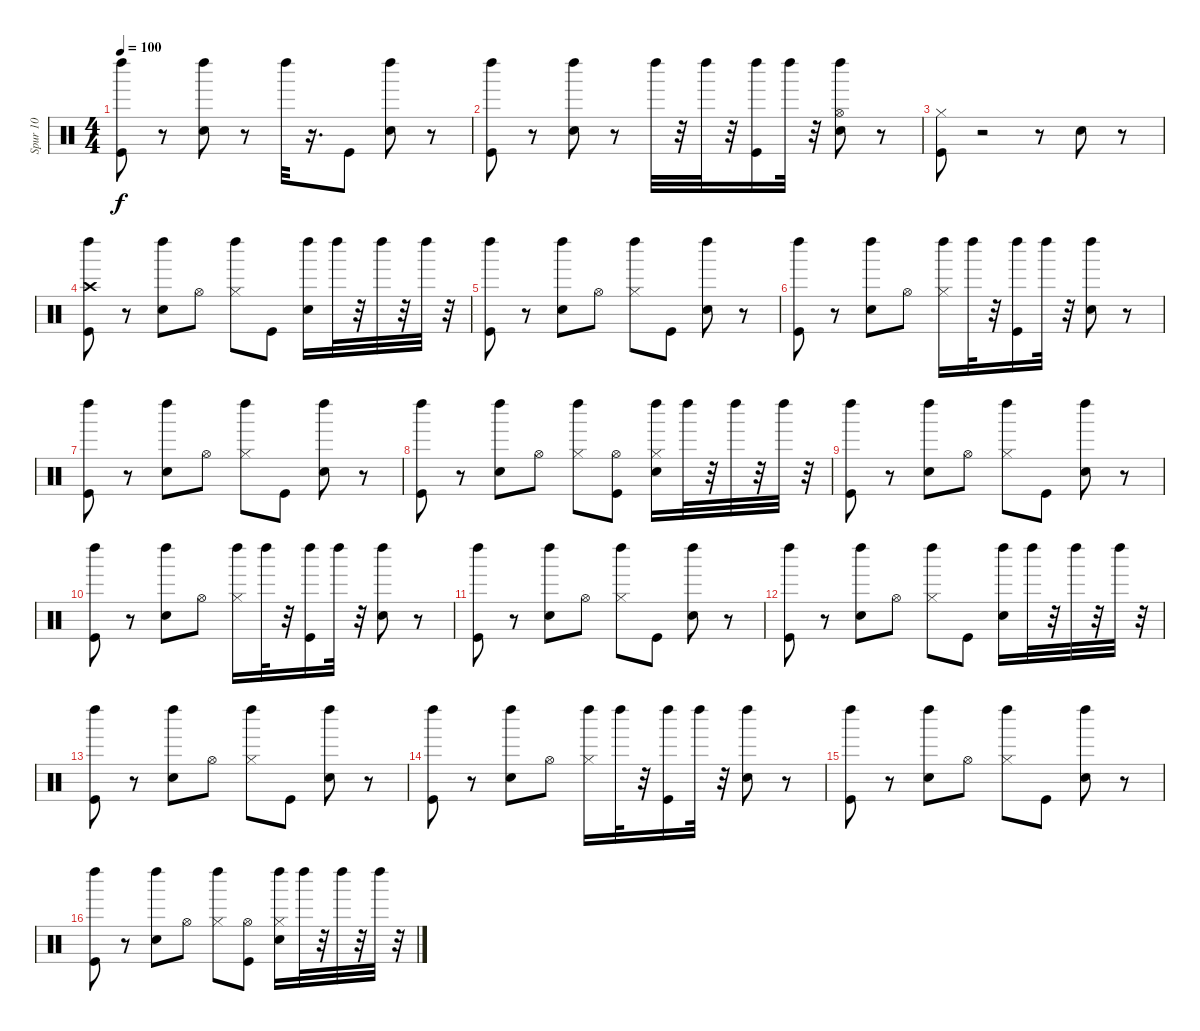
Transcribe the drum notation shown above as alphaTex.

\track ("Spur 10" "Spur 10") {instrument percussion}
\staff {score}
\articulation defaults
\ts (4 4)
\tempo 100
\clef neutral
\ks c
("Kick (hit)" "Left Maraca (hit)").8{dy f} r.8 ("Snare (hit) 2" "Left Maraca (hit)").8 r.8 "Left Maraca (hit)".32 r.16{d} "Kick (hit)".8 ("Snare (hit) 2" "Left Maraca (hit)").8 r.8 |
("Kick (hit)" "Left Maraca (hit)").8 r.8 ("Snare (hit) 2" "Left Maraca (hit)").8 r.8 "Left Maraca (hit)".32 r.32 "Left Maraca (hit)".32 r.32 ("Kick (hit)" "Left Maraca (hit)").16 "Left Maraca (hit)".32 r.32 ("Hi-Hat (open)" "Snare (hit) 2" "Left Maraca (hit)").8 r.8 |
("Hi-Hat (closed)" "Kick (hit)").8 r.2 r.8 "Snare (hit) 2".8 r.8 |
("Kick (hit)" "Crash high (hit)" "Left Maraca (hit)").8 r.8 ("Snare (hit) 2" "Left Maraca (hit)").8 "Hi-Hat (open)".8 ("Hi-Hat (closed)" "Left Maraca (hit)").8 "Kick (hit)".8 ("Snare (hit) 2" "Left Maraca (hit)").16 "Left Maraca (hit)".32 r.32 "Left Maraca (hit)".32 r.32 "Left Maraca (hit)".32 r.32 |
("Kick (hit)" "Left Maraca (hit)").8 r.8 ("Snare (hit) 2" "Left Maraca (hit)").8 "Hi-Hat (open)".8 ("Hi-Hat (closed)" "Left Maraca (hit)").8 "Kick (hit)".8 ("Snare (hit) 2" "Left Maraca (hit)").8 r.8 |
("Kick (hit)" "Left Maraca (hit)").8 r.8 ("Snare (hit) 2" "Left Maraca (hit)").8 "Hi-Hat (open)".8 ("Hi-Hat (closed)" "Left Maraca (hit)").16 "Left Maraca (hit)".32 r.32 ("Kick (hit)" "Left Maraca (hit)").16 "Left Maraca (hit)".32 r.32 ("Snare (hit) 2" "Left Maraca (hit)").8 r.8 |
("Kick (hit)" "Left Maraca (hit)").8 r.8 ("Snare (hit) 2" "Left Maraca (hit)").8 "Hi-Hat (open)".8 ("Hi-Hat (closed)" "Left Maraca (hit)").8 "Kick (hit)".8 ("Snare (hit) 2" "Left Maraca (hit)").8 r.8 |
("Kick (hit)" "Left Maraca (hit)").8 r.8 ("Snare (hit) 2" "Left Maraca (hit)").8 "Hi-Hat (open)".8 ("Hi-Hat (closed)" "Left Maraca (hit)").8 ("Hi-Hat (open)" "Kick (hit)").8 ("Hi-Hat (closed)" "Snare (hit) 2" "Left Maraca (hit)").16 "Left Maraca (hit)".32 r.32 "Left Maraca (hit)".32 r.32 "Left Maraca (hit)".32 r.32 |
("Kick (hit)" "Left Maraca (hit)").8 r.8 ("Snare (hit) 2" "Left Maraca (hit)").8 "Hi-Hat (open)".8 ("Hi-Hat (closed)" "Left Maraca (hit)").8 "Kick (hit)".8 ("Snare (hit) 2" "Left Maraca (hit)").8 r.8 |
("Kick (hit)" "Left Maraca (hit)").8 r.8 ("Snare (hit) 2" "Left Maraca (hit)").8 "Hi-Hat (open)".8 ("Hi-Hat (closed)" "Left Maraca (hit)").16 "Left Maraca (hit)".32 r.32 ("Kick (hit)" "Left Maraca (hit)").16 "Left Maraca (hit)".32 r.32 ("Snare (hit) 2" "Left Maraca (hit)").8 r.8 |
("Kick (hit)" "Left Maraca (hit)").8 r.8 ("Snare (hit) 2" "Left Maraca (hit)").8 "Hi-Hat (open)".8 ("Hi-Hat (closed)" "Left Maraca (hit)").8 "Kick (hit)".8 ("Snare (hit) 2" "Left Maraca (hit)").8 r.8 |
("Kick (hit)" "Left Maraca (hit)").8 r.8 ("Snare (hit) 2" "Left Maraca (hit)").8 "Hi-Hat (open)".8 ("Hi-Hat (closed)" "Left Maraca (hit)").8 "Kick (hit)".8 ("Snare (hit) 2" "Left Maraca (hit)").16 "Left Maraca (hit)".32 r.32 "Left Maraca (hit)".32 r.32 "Left Maraca (hit)".32 r.32 |
("Kick (hit)" "Left Maraca (hit)").8 r.8 ("Snare (hit) 2" "Left Maraca (hit)").8 "Hi-Hat (open)".8 ("Hi-Hat (closed)" "Left Maraca (hit)").8 "Kick (hit)".8 ("Snare (hit) 2" "Left Maraca (hit)").8 r.8 |
("Kick (hit)" "Left Maraca (hit)").8 r.8 ("Snare (hit) 2" "Left Maraca (hit)").8 "Hi-Hat (open)".8 ("Hi-Hat (closed)" "Left Maraca (hit)").16 "Left Maraca (hit)".32 r.32 ("Kick (hit)" "Left Maraca (hit)").16 "Left Maraca (hit)".32 r.32 ("Snare (hit) 2" "Left Maraca (hit)").8 r.8 |
("Kick (hit)" "Left Maraca (hit)").8 r.8 ("Snare (hit) 2" "Left Maraca (hit)").8 "Hi-Hat (open)".8 ("Hi-Hat (closed)" "Left Maraca (hit)").8 "Kick (hit)".8 ("Snare (hit) 2" "Left Maraca (hit)").8 r.8 |
("Kick (hit)" "Left Maraca (hit)").8 r.8 ("Snare (hit) 2" "Left Maraca (hit)").8 "Hi-Hat (open)".8 ("Hi-Hat (closed)" "Left Maraca (hit)").8 ("Hi-Hat (open)" "Kick (hit)").8 ("Hi-Hat (closed)" "Snare (hit) 2" "Left Maraca (hit)").16 "Left Maraca (hit)".32 r.32 "Left Maraca (hit)".32 r.32 "Left Maraca (hit)".32 r.32
